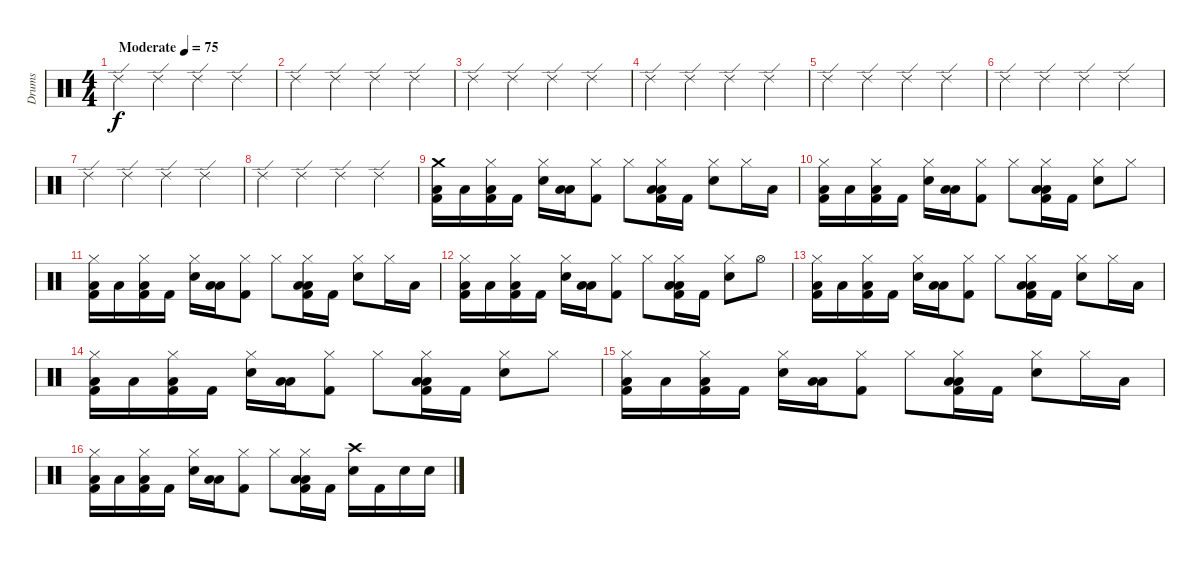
\track ("Drums" "Drums") {instrument percussion}
\staff {score}
\articulation defaults
\ts (4 4)
\tempo (75 "Moderate")
\clef neutral
\ks c "Ride (edge) 2".4{dy f} "Ride (edge) 2".4 "Ride (edge) 2".4 "Ride (edge) 2".4
|
"Ride (edge) 2".4 "Ride (edge) 2".4 "Ride (edge) 2".4 "Ride (edge) 2".4 |
"Ride (edge) 2".4 "Ride (edge) 2".4 "Ride (edge) 2".4 "Ride (edge) 2".4 |
"Ride (edge) 2".4 "Ride (edge) 2".4 "Ride (edge) 2".4 "Ride (edge) 2".4 |
"Ride (edge) 2".4 "Ride (edge) 2".4 "Ride (edge) 2".4 "Ride (edge) 2".4 |
"Ride (edge) 2".4 "Ride (edge) 2".4 "Ride (edge) 2".4 "Ride (edge) 2".4 |
"Ride (edge) 2".4 "Ride (edge) 2".4 "Ride (edge) 2".4 "Ride (edge) 2".4 |
"Ride (edge) 2".4 "Ride (edge) 2".4 "Ride (edge) 2".4 "Ride (edge) 2".4 |
("Kick (hit) 2" "Low Floor Tom (hit)" "Crash medium (hit)").16 "Low Tom (hit)".16 ("Kick (hit) 2" "Low Floor Tom (hit)" "Hi-Hat (closed)").16 "Kick (hit) 2".16 ("Snare (hit) 2" "Hi-Hat (closed)").16 ("Low Tom (hit)" "Low Floor Tom (hit)").16 ("Kick (hit) 2" "Hi-Hat (closed)").8 "Hi-Hat (closed)".8 ("Kick (hit) 2" "Low Floor Tom (hit)" "Low Tom (hit)" "Hi-Hat (closed)").16 "Kick (hit) 2".16 ("Snare (hit) 2" "Hi-Hat (closed)").8 "Hi-Hat (closed)".16 "Low Tom (hit)".16 |
("Kick (hit) 2" "Low Floor Tom (hit)" "Hi-Hat (closed)").16 "Low Tom (hit)".16 ("Kick (hit) 2" "Low Floor Tom (hit)" "Hi-Hat (closed)").16 "Kick (hit) 2".16 ("Snare (hit) 2" "Hi-Hat (closed)").16 ("Low Tom (hit)" "Low Floor Tom (hit)").16 ("Kick (hit) 2" "Hi-Hat (closed)").8 "Hi-Hat (closed)".8 ("Kick (hit) 2" "Low Floor Tom (hit)" "Low Tom (hit)" "Hi-Hat (closed)").16 "Kick (hit) 2".16 ("Snare (hit) 2" "Hi-Hat (closed)").8 "Hi-Hat (closed)".8 |
("Kick (hit) 2" "Low Floor Tom (hit)" "Hi-Hat (closed)").16 "Low Tom (hit)".16 ("Kick (hit) 2" "Low Floor Tom (hit)" "Hi-Hat (closed)").16 "Kick (hit) 2".16 ("Snare (hit) 2" "Hi-Hat (closed)").16 ("Low Tom (hit)" "Low Floor Tom (hit)").16 ("Kick (hit) 2" "Hi-Hat (closed)").8 "Hi-Hat (closed)".8 ("Kick (hit) 2" "Low Floor Tom (hit)" "Low Tom (hit)" "Hi-Hat (closed)").16 "Kick (hit) 2".16 ("Snare (hit) 2" "Hi-Hat (closed)").8 "Hi-Hat (closed)".16 "Low Tom (hit)".16 |
("Kick (hit) 2" "Low Floor Tom (hit)" "Hi-Hat (closed)").16 "Low Tom (hit)".16 ("Kick (hit) 2" "Low Floor Tom (hit)" "Hi-Hat (closed)").16 "Kick (hit) 2".16 ("Snare (hit) 2" "Hi-Hat (closed)").16 ("Low Tom (hit)" "Low Floor Tom (hit)").16 ("Kick (hit) 2" "Hi-Hat (closed)").8 "Hi-Hat (closed)".8 ("Kick (hit) 2" "Low Floor Tom (hit)" "Low Tom (hit)" "Hi-Hat (closed)").16 "Kick (hit) 2".16 ("Snare (hit) 2" "Hi-Hat (closed)").8 "Hi-Hat (open)".8 |
("Kick (hit) 2" "Low Floor Tom (hit)" "Hi-Hat (closed)").16 "Low Tom (hit)".16 ("Kick (hit) 2" "Low Floor Tom (hit)" "Hi-Hat (closed)").16 "Kick (hit) 2".16 ("Snare (hit) 2" "Hi-Hat (closed)").16 ("Low Tom (hit)" "Low Floor Tom (hit)").16 ("Kick (hit) 2" "Hi-Hat (closed)").8 "Hi-Hat (closed)".8 ("Kick (hit) 2" "Low Floor Tom (hit)" "Low Tom (hit)" "Hi-Hat (closed)").16 "Kick (hit) 2".16 ("Snare (hit) 2" "Hi-Hat (closed)").8 "Hi-Hat (closed)".16 "Low Tom (hit)".16 |
("Kick (hit) 2" "Low Floor Tom (hit)" "Hi-Hat (closed)").16 "Low Tom (hit)".16 ("Kick (hit) 2" "Low Floor Tom (hit)" "Hi-Hat (closed)").16 "Kick (hit) 2".16 ("Snare (hit) 2" "Hi-Hat (closed)").16 ("Low Tom (hit)" "Low Floor Tom (hit)").16 ("Kick (hit) 2" "Hi-Hat (closed)").8 "Hi-Hat (closed)".8 ("Kick (hit) 2" "Low Floor Tom (hit)" "Low Tom (hit)" "Hi-Hat (closed)").16 "Kick (hit) 2".16 ("Snare (hit) 2" "Hi-Hat (closed)").8 "Hi-Hat (closed)".8 |
("Kick (hit) 2" "Low Floor Tom (hit)" "Hi-Hat (closed)").16 "Low Tom (hit)".16 ("Kick (hit) 2" "Low Floor Tom (hit)" "Hi-Hat (closed)").16 "Kick (hit) 2".16 ("Snare (hit) 2" "Hi-Hat (closed)").16 ("Low Tom (hit)" "Low Floor Tom (hit)").16 ("Kick (hit) 2" "Hi-Hat (closed)").8 "Hi-Hat (closed)".8 ("Kick (hit) 2" "Low Floor Tom (hit)" "Low Tom (hit)" "Hi-Hat (closed)").16 "Kick (hit) 2".16 ("Snare (hit) 2" "Hi-Hat (closed)").8 "Hi-Hat (closed)".16 "Low Tom (hit)".16 |
("Kick (hit) 2" "Low Floor Tom (hit)" "Hi-Hat (closed)").16 "Low Tom (hit)".16 ("Kick (hit) 2" "Low Floor Tom (hit)" "Hi-Hat (closed)").16 "Kick (hit) 2".16 ("Snare (hit) 2" "Hi-Hat (closed)").16 ("Low Tom (hit)" "Low Floor Tom (hit)").16 ("Kick (hit) 2" "Hi-Hat (closed)").8 "Hi-Hat (closed)".8 ("Kick (hit) 2" "Low Floor Tom (hit)" "Low Tom (hit)" "Hi-Hat (closed)").16 "Kick (hit) 2".16 ("Snare (hit) 2" "Crash high (hit)").16 "Kick (hit) 2".16 "Snare (hit) 2".16 "Snare (hit) 2".16
